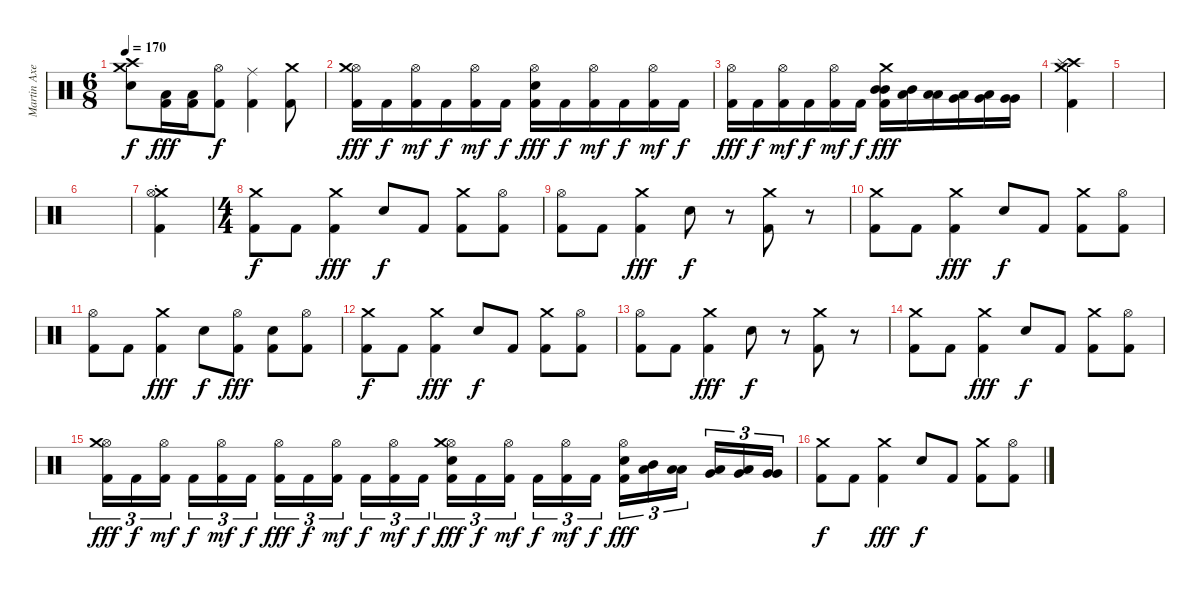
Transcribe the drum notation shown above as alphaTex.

\track ("Martin Axenrot" "Martin Axe") {instrument percussion}
\staff
\articulation defaults
\ts (6 8)
\tempo 170
\clef neutral
\ks c
("Crash high (hit)" "Crash medium (hit)" "Snare (hit) 2").8{dy f} ("Low Tom (hit)" "Kick (hit) 2").16{dy fff} ("Low Tom (hit)" "Kick (hit) 2").16 ("Hi-Hat (open)" "Kick (hit) 2").8{dy f} ("Ride (middle)" "Kick (hit) 2").4 ("Crash medium (hit)" "Kick (hit) 2").8 |
("Hi-Hat (open)" "Crash medium (hit)" "Kick (hit) 2").16{dy fff} "Kick (hit) 2".16{dy f} ("Hi-Hat (open)" "Kick (hit) 2").16{dy mf} "Kick (hit) 2".16{dy f} ("Hi-Hat (open)" "Kick (hit) 2").16{dy mf} "Kick (hit) 2".16{dy f} ("Hi-Hat (open)" "Snare (hit) 2" "Kick (hit) 2").16{dy fff} "Kick (hit) 2".16{dy f} ("Hi-Hat (open)" "Kick (hit) 2").16{dy mf} "Kick (hit) 2".16{dy f} ("Hi-Hat (open)" "Kick (hit) 2").16{dy mf} "Kick (hit) 2".16{dy f} |
("Hi-Hat (open)" "Kick (hit) 2").16{dy fff} "Kick (hit) 2".16{dy f} ("Hi-Hat (open)" "Kick (hit) 2").16{dy mf} "Kick (hit) 2".16{dy f} ("Hi-Hat (open)" "Kick (hit) 2").16{dy mf} "Kick (hit) 2".16{dy f} ("Crash medium (hit)" "Mid Tom (hit)" "Mid Tom (hit)" "Kick (hit) 2").16{dy fff} ("Mid Tom (hit)" "Low Tom (hit)").16 ("Low Tom (hit)" "Low Tom (hit)").16 ("Low Tom (hit)" "Very Low Tom (hit)").16 ("Low Tom (hit)" "Very Low Tom (hit)").16 ("Very Low Tom (hit)" "Very Low Tom (hit)").16 |
("Crash high (hit)" "Splash (hit)" "Crash medium (hit)" "Kick (hit) 2").4 |
|
|
("Crash medium (hit)"{st} "Hi-Hat (open)"{st} "Kick (hit) 2"{st}).4 |
\ts (4 4)
("Crash medium (hit)" "Kick (hit) 2").8{dy f} "Kick (hit) 2".8 ("Crash medium (hit)" "Kick (hit) 2").4{dy fff} "Snare (hit) 2".8{dy f} "Kick (hit) 2".8 ("Crash medium (hit)" "Kick (hit) 2").8 ("Hi-Hat (open)" "Kick (hit) 2").8 |
("Hi-Hat (open)" "Kick (hit) 2").8 "Kick (hit) 2".8 ("Crash medium (hit)" "Kick (hit) 2").4{dy fff} "Snare (hit) 2".8{dy f} r.8 ("Crash medium (hit)" "Kick (hit) 2").8 r.8 |
("Crash medium (hit)" "Kick (hit) 2").8 "Kick (hit) 2".8 ("Crash medium (hit)" "Kick (hit) 2").4{dy fff} "Snare (hit) 2".8{dy f} "Kick (hit) 2".8 ("Crash medium (hit)" "Kick (hit) 2").8 ("Hi-Hat (open)" "Kick (hit) 2").8 |
("Hi-Hat (open)" "Kick (hit) 2").8 "Kick (hit) 2".8 ("Crash medium (hit)" "Kick (hit) 2").4{dy fff} "Snare (hit) 2".8{dy f} ("Hi-Hat (open)" "Kick (hit) 2").8{dy fff} ("Snare (hit) 2" "Kick (hit) 2").8 ("Hi-Hat (open)" "Kick (hit) 2").8 |
("Crash medium (hit)" "Kick (hit) 2").8{dy f} "Kick (hit) 2".8 ("Crash medium (hit)" "Kick (hit) 2").4{dy fff} "Snare (hit) 2".8{dy f} "Kick (hit) 2".8 ("Crash medium (hit)" "Kick (hit) 2").8 ("Hi-Hat (open)" "Kick (hit) 2").8 |
("Hi-Hat (open)" "Kick (hit) 2").8 "Kick (hit) 2".8 ("Crash medium (hit)" "Kick (hit) 2").4{dy fff} "Snare (hit) 2".8{dy f} r.8 ("Crash medium (hit)" "Kick (hit) 2").8 r.8 |
("Crash medium (hit)" "Kick (hit) 2").8 "Kick (hit) 2".8 ("Crash medium (hit)" "Kick (hit) 2").4{dy fff} "Snare (hit) 2".8{dy f} "Kick (hit) 2".8 ("Crash medium (hit)" "Kick (hit) 2").8 ("Hi-Hat (open)" "Kick (hit) 2").8 |
("Hi-Hat (open)" "Crash medium (hit)" "Kick (hit) 2").16{tu (3 2) dy fff} "Kick (hit) 2".16{tu (3 2) dy f} ("Hi-Hat (open)" "Kick (hit) 2").16{tu (3 2) dy mf beam splitsecondary} "Kick (hit) 2".16{tu (3 2) dy f} ("Hi-Hat (open)" "Kick (hit) 2").16{tu (3 2) dy mf} "Kick (hit) 2".16{tu (3 2) dy f} ("Hi-Hat (open)" "Kick (hit) 2").16{tu (3 2) dy fff} "Kick (hit) 2".16{tu (3 2) dy f} ("Hi-Hat (open)" "Kick (hit) 2").16{tu (3 2) dy mf beam splitsecondary} "Kick (hit) 2".16{tu (3 2) dy f} ("Hi-Hat (open)" "Kick (hit) 2").16{tu (3 2) dy mf} "Kick (hit) 2".16{tu (3 2) dy f} ("Hi-Hat (open)" "Crash medium (hit)" "Snare (hit) 2" "Kick (hit) 2").16{tu (3 2) dy fff} "Kick (hit) 2".16{tu (3 2) dy f} ("Hi-Hat (open)" "Kick (hit) 2").16{tu (3 2) dy mf beam splitsecondary} "Kick (hit) 2".16{tu (3 2) dy f} ("Hi-Hat (open)" "Kick (hit) 2").16{tu (3 2) dy mf} "Kick (hit) 2".16{tu (3 2) dy f} ("Hi-Hat (open)" "Snare (hit) 2" "Kick (hit) 2").16{tu (3 2) dy fff} ("Mid Tom (hit)" "Low Tom (hit)").16{tu (3 2)} ("Low Tom (hit)" "Low Tom (hit)").16{tu (3 2) beam splitsecondary} ("Low Tom (hit)" "Very Low Tom (hit)").16{tu (3 2)} ("Low Tom (hit)" "Very Low Tom (hit)").16{tu (3 2)} ("Very Low Tom (hit)" "Very Low Tom (hit)").16{tu (3 2)} |
("Crash medium (hit)" "Kick (hit) 2").8{dy f} "Kick (hit) 2".8 ("Crash medium (hit)" "Kick (hit) 2").4{dy fff} "Snare (hit) 2".8{dy f} "Kick (hit) 2".8 ("Crash medium (hit)" "Kick (hit) 2").8 ("Hi-Hat (open)" "Kick (hit) 2").8
